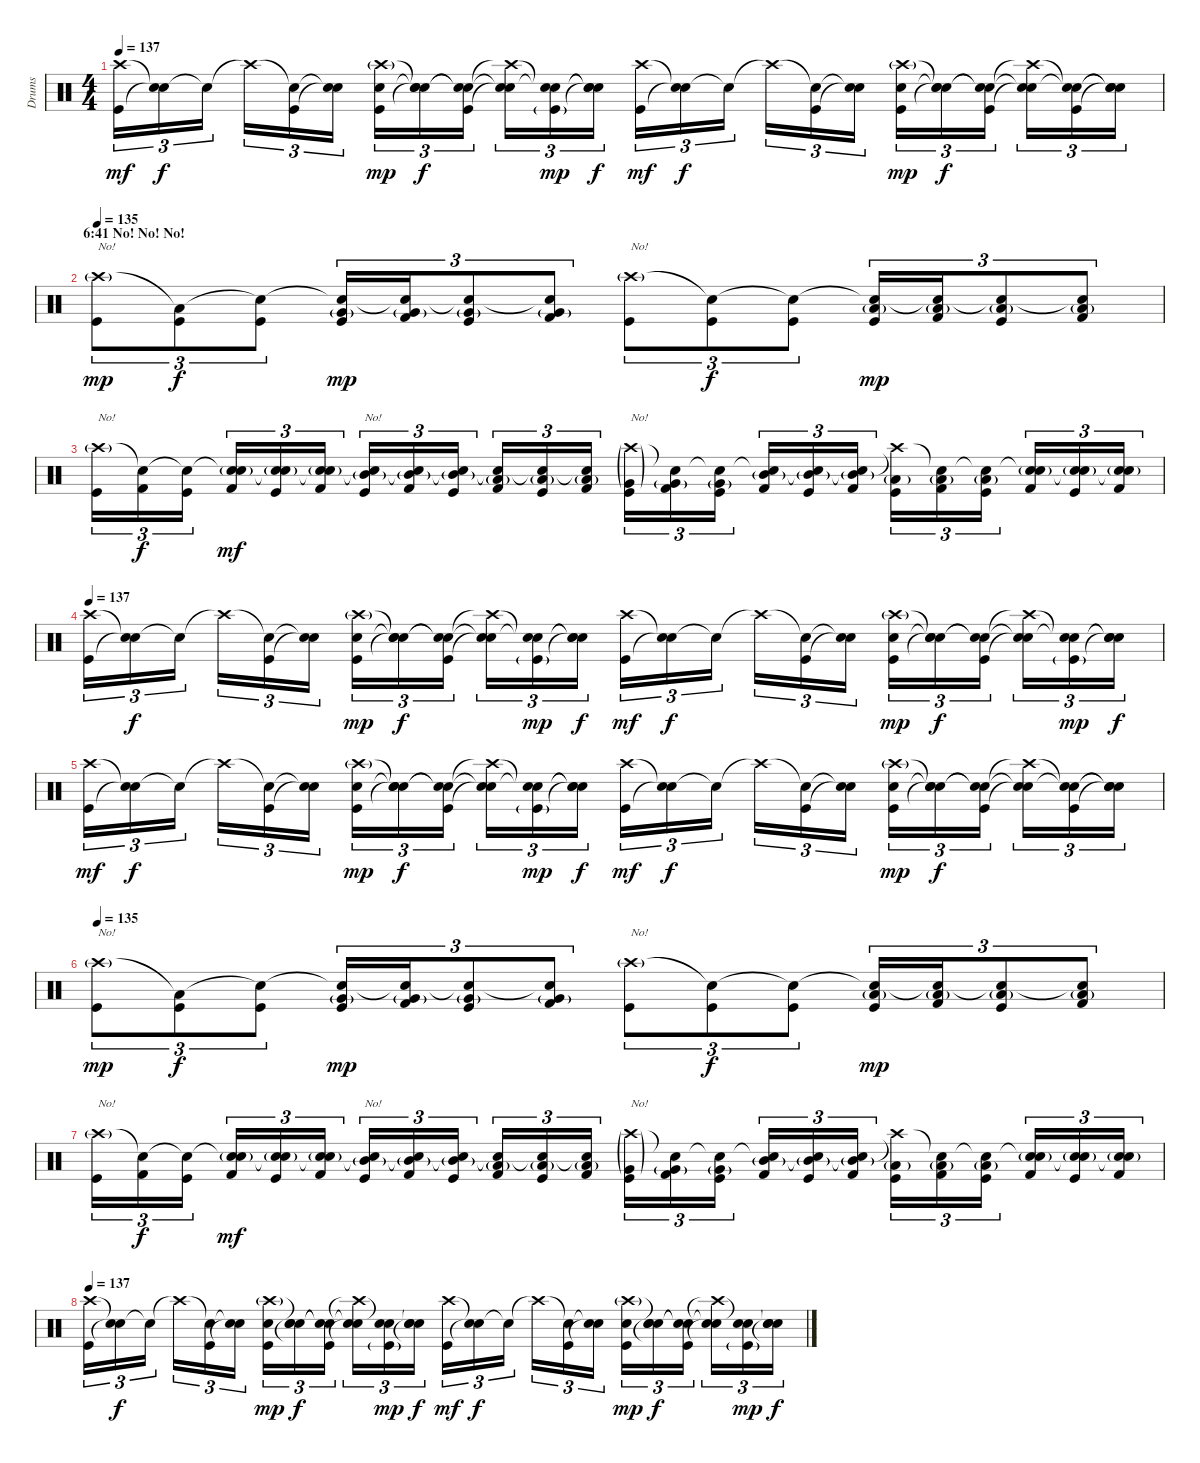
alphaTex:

\track ("Drums" "Drums") {instrument percussion}
\staff {score}
\articulation defaults
\ts (4 4)
\tempo 137
\clef neutral
\ks c
("Crash high (hit)" "Kick (hit)").16{tu (3 2) dy mf} ("Snare (hit)"{t} "Snare (hit)"{t}).16{tu (3 2) dy f} "Snare (hit)"{t}.16{tu (3 2)} "Crash high (hit)"{t}.16{tu (3 2)} ("Snare (hit)"{t} "Kick (hit)").16{tu (3 2)} ("Snare (hit)"{t} "Snare (hit)"{t}).16{tu (3 2)} ("Crash high (hit)"{g} "Snare (hit) 2" "Kick (hit)").16{tu (3 2) dy mp} ("Snare (hit)"{t} "Snare (hit)"{t} "Snare (hit)"{t}).16{tu (3 2) dy f} ("Snare (hit)"{t} "Snare (hit)"{t} "Kick (hit)").16{tu (3 2)} ("Crash high (hit)"{t} "Snare (hit)"{t} "Snare (hit)"{t}).16{tu (3 2)} ("Snare (hit)"{t} "Snare (hit)"{t} "Kick (hit)"{g}).16{tu (3 2) dy mp} ("Snare (hit)"{t} "Snare (hit)"{t} "Snare (hit)"{t}).16{tu (3 2) dy f} ("Crash high (hit)" "Kick (hit)").16{tu (3 2) dy mf} ("Snare (hit)"{t} "Snare (hit)"{t}).16{tu (3 2) dy f} "Snare (hit)"{t}.16{tu (3 2)} "Crash high (hit)"{t}.16{tu (3 2)} ("Snare (hit)"{t} "Kick (hit)").16{tu (3 2)} ("Snare (hit)"{t} "Snare (hit)"{t}).16{tu (3 2)} ("Crash high (hit)"{g} "Snare (hit) 2" "Kick (hit)").16{tu (3 2) dy mp} ("Snare (hit)"{t} "Snare (hit)"{t} "Snare (hit)"{t}).16{tu (3 2) dy f} ("Snare (hit)"{t} "Snare (hit)"{t} "Kick (hit)").16{tu (3 2)} ("Crash high (hit)"{t} "Snare (hit)"{t} "Snare (hit)"{t}).16{tu (3 2)} ("Snare (hit)"{t} "Snare (hit)"{t} "Kick (hit)").16{tu (3 2)} ("Snare (hit)"{t} "Snare (hit)"{t} "Snare (hit)"{t}).16{tu (3 2)} |
\section ("" "6:41 No! No! No!")
\tempo 135
("Crash high (hit)"{g} "Kick (hit)").8{tu (3 2) txt "No!" dy mp volume 16} ("Low Floor Tom (hit)"{t} "Kick (hit)").8{tu (3 2) dy f} ("Snare (hit)"{t} "Kick (hit)").8{tu (3 2)} ("Snare (hit)"{t} "Very Low Tom (hit)"{g} "Kick (hit)").16{tu (3 2) dy mp} ("Snare (hit)"{t} "Very Low Tom (hit)"{g} "Kick (hit) 2").16{tu (3 2)} ("Snare (hit)"{t} "Very Low Tom (hit)"{g} "Kick (hit)").8{tu (3 2)} ("Snare (hit)"{t} "Very Low Tom (hit)"{g} "Kick (hit) 2").8{tu (3 2)} ("Crash high (hit)"{g} "Kick (hit)").8{tu (3 2) txt "No!"} ("Snare (hit)"{t} "Kick (hit)").8{tu (3 2) dy f} ("Snare (hit)"{t} "Kick (hit)").8{tu (3 2)} ("Snare (hit)"{t} "Low Tom (hit)"{g} "Kick (hit)").16{tu (3 2) dy mp} ("Snare (hit)"{t} "Low Tom (hit)"{g} "Kick (hit) 2").16{tu (3 2)} ("Snare (hit)"{t} "Low Tom (hit)"{g} "Kick (hit)").8{tu (3 2)} ("Snare (hit)"{t} "Low Tom (hit)"{g} "Kick (hit) 2").8{tu (3 2)} |
("Crash high (hit)"{g} "Kick (hit)").16{tu (3 2) txt "No!"} ("Snare (hit)"{t} "Kick (hit) 2").16{tu (3 2) dy f} ("Snare (hit)"{t} "Kick (hit)").16{tu (3 2)} ("Snare (hit)"{t} "Snare (hit) 2"{g} "Kick (hit) 2").16{tu (3 2) dy mf} ("Snare (hit)"{t} "Snare (hit) 2"{g} "Kick (hit)").16{tu (3 2)} ("Snare (hit)"{t} "Snare (hit) 2"{g} "Kick (hit) 2").16{tu (3 2)} ("Snare (hit)"{t} "Mid Tom (hit)"{g} "Kick (hit)").16{tu (3 2) txt "No!"} ("Snare (hit)"{t} "Mid Tom (hit)"{g} "Kick (hit) 2").16{tu (3 2)} ("Snare (hit)"{t} "Mid Tom (hit)"{g} "Kick (hit)").16{tu (3 2)} ("Snare (hit)"{t} "Low Tom (hit)"{g} "Kick (hit) 2").16{tu (3 2)} ("Snare (hit)"{t} "Low Tom (hit)"{g} "Kick (hit)").16{tu (3 2)} ("Snare (hit)"{t} "Low Tom (hit)"{g} "Kick (hit) 2").16{tu (3 2)} ("Crash high (hit)"{g} "Very Low Tom (hit)"{g} "Kick (hit)").16{tu (3 2) txt "No!"} ("Snare (hit)"{t} "Very Low Tom (hit)"{g} "Kick (hit) 2").16{tu (3 2)} ("Snare (hit)"{t} "Very Low Tom (hit)"{g} "Kick (hit)").16{tu (3 2)} ("Snare (hit)"{t} "Mid Tom (hit)"{g} "Kick (hit) 2").16{tu (3 2)} ("Snare (hit)"{t} "Mid Tom (hit)"{g} "Kick (hit)").16{tu (3 2)} ("Snare (hit)"{t} "Mid Tom (hit)"{g} "Kick (hit) 2").16{tu (3 2)} ("Crash high (hit)"{t} "Low Tom (hit)"{g} "Kick (hit)").16{tu (3 2)} ("Snare (hit)"{t} "Low Tom (hit)"{g} "Kick (hit) 2").16{tu (3 2)} ("Snare (hit)"{t} "Low Tom (hit)"{g} "Kick (hit)").16{tu (3 2)} ("Snare (hit)"{t} "Snare (hit) 2"{g} "Kick (hit) 2").16{tu (3 2)} ("Snare (hit)"{t} "Snare (hit) 2"{g} "Kick (hit)").16{tu (3 2)} ("Snare (hit)"{t} "Snare (hit) 2"{g} "Kick (hit) 2").16{tu (3 2)} |
\tempo 137
("Crash high (hit)" "Kick (hit)").16{tu (3 2)} ("Snare (hit)"{t} "Snare (hit)"{t}).16{tu (3 2) dy f} "Snare (hit)"{t}.16{tu (3 2)} "Crash high (hit)"{t}.16{tu (3 2)} ("Snare (hit)"{t} "Kick (hit)").16{tu (3 2)} ("Snare (hit)"{t} "Snare (hit)"{t}).16{tu (3 2)} ("Crash high (hit)"{g} "Snare (hit) 2" "Kick (hit)").16{tu (3 2) dy mp} ("Snare (hit)"{t} "Snare (hit)"{t} "Snare (hit)"{t}).16{tu (3 2) dy f} ("Snare (hit)"{t} "Snare (hit)"{t} "Kick (hit)").16{tu (3 2)} ("Crash high (hit)"{t} "Snare (hit)"{t} "Snare (hit)"{t}).16{tu (3 2)} ("Snare (hit)"{t} "Snare (hit)"{t} "Kick (hit)"{g}).16{tu (3 2) dy mp} ("Snare (hit)"{t} "Snare (hit)"{t} "Snare (hit)"{t}).16{tu (3 2) dy f} ("Crash high (hit)" "Kick (hit)").16{tu (3 2) dy mf} ("Snare (hit)"{t} "Snare (hit)"{t}).16{tu (3 2) dy f} "Snare (hit)"{t}.16{tu (3 2)} "Crash high (hit)"{t}.16{tu (3 2)} ("Snare (hit)"{t} "Kick (hit)").16{tu (3 2)} ("Snare (hit)"{t} "Snare (hit)"{t}).16{tu (3 2)} ("Crash high (hit)"{g} "Snare (hit) 2" "Kick (hit)").16{tu (3 2) dy mp} ("Snare (hit)"{t} "Snare (hit)"{t} "Snare (hit)"{t}).16{tu (3 2) dy f} ("Snare (hit)"{t} "Snare (hit)"{t} "Kick (hit)").16{tu (3 2)} ("Crash high (hit)"{t} "Snare (hit)"{t} "Snare (hit)"{t}).16{tu (3 2)} ("Snare (hit)"{t} "Snare (hit)"{t} "Kick (hit)"{g}).16{tu (3 2) dy mp} ("Snare (hit)"{t} "Snare (hit)"{t} "Snare (hit)"{t}).16{tu (3 2) dy f} |
("Crash high (hit)" "Kick (hit)").16{tu (3 2) dy mf} ("Snare (hit)"{t} "Snare (hit)"{t}).16{tu (3 2) dy f} "Snare (hit)"{t}.16{tu (3 2)} "Crash high (hit)"{t}.16{tu (3 2)} ("Snare (hit)"{t} "Kick (hit)").16{tu (3 2)} ("Snare (hit)"{t} "Snare (hit)"{t}).16{tu (3 2)} ("Crash high (hit)"{g} "Snare (hit) 2" "Kick (hit)").16{tu (3 2) dy mp} ("Snare (hit)"{t} "Snare (hit)"{t} "Snare (hit)"{t}).16{tu (3 2) dy f} ("Snare (hit)"{t} "Snare (hit)"{t} "Kick (hit)").16{tu (3 2)} ("Crash high (hit)"{t} "Snare (hit)"{t} "Snare (hit)"{t}).16{tu (3 2)} ("Snare (hit)"{t} "Snare (hit)"{t} "Kick (hit)"{g}).16{tu (3 2) dy mp} ("Snare (hit)"{t} "Snare (hit)"{t} "Snare (hit)"{t}).16{tu (3 2) dy f} ("Crash high (hit)" "Kick (hit)").16{tu (3 2) dy mf} ("Snare (hit)"{t} "Snare (hit)"{t}).16{tu (3 2) dy f} "Snare (hit)"{t}.16{tu (3 2)} "Crash high (hit)"{t}.16{tu (3 2)} ("Snare (hit)"{t} "Kick (hit)").16{tu (3 2)} ("Snare (hit)"{t} "Snare (hit)"{t}).16{tu (3 2)} ("Crash high (hit)"{g} "Snare (hit) 2" "Kick (hit)").16{tu (3 2) dy mp} ("Snare (hit)"{t} "Snare (hit)"{t} "Snare (hit)"{t}).16{tu (3 2) dy f} ("Snare (hit)"{t} "Snare (hit)"{t} "Kick (hit)").16{tu (3 2)} ("Crash high (hit)"{t} "Snare (hit)"{t} "Snare (hit)"{t}).16{tu (3 2)} ("Snare (hit)"{t} "Snare (hit)"{t} "Kick (hit)").16{tu (3 2)} ("Snare (hit)"{t} "Snare (hit)"{t} "Snare (hit)"{t}).16{tu (3 2)} |
\tempo 135
("Crash high (hit)"{g} "Kick (hit)").8{tu (3 2) txt "No!" dy mp volume 16} ("Low Floor Tom (hit)"{t} "Kick (hit)").8{tu (3 2) dy f} ("Snare (hit)"{t} "Kick (hit)").8{tu (3 2)} ("Snare (hit)"{t} "Very Low Tom (hit)"{g} "Kick (hit)").16{tu (3 2) dy mp} ("Snare (hit)"{t} "Very Low Tom (hit)"{g} "Kick (hit) 2").16{tu (3 2)} ("Snare (hit)"{t} "Very Low Tom (hit)"{g} "Kick (hit)").8{tu (3 2)} ("Snare (hit)"{t} "Very Low Tom (hit)"{g} "Kick (hit) 2").8{tu (3 2)} ("Crash high (hit)"{g} "Kick (hit)").8{tu (3 2) txt "No!"} ("Snare (hit)"{t} "Kick (hit)").8{tu (3 2) dy f} ("Snare (hit)"{t} "Kick (hit)").8{tu (3 2)} ("Snare (hit)"{t} "Low Tom (hit)"{g} "Kick (hit)").16{tu (3 2) dy mp} ("Snare (hit)"{t} "Low Tom (hit)"{g} "Kick (hit) 2").16{tu (3 2)} ("Snare (hit)"{t} "Low Tom (hit)"{g} "Kick (hit)").8{tu (3 2)} ("Snare (hit)"{t} "Low Tom (hit)"{g} "Kick (hit) 2").8{tu (3 2)} |
("Crash high (hit)"{g} "Kick (hit)").16{tu (3 2) txt "No!"} ("Snare (hit)"{t} "Kick (hit) 2").16{tu (3 2) dy f} ("Snare (hit)"{t} "Kick (hit)").16{tu (3 2)} ("Snare (hit)"{t} "Snare (hit) 2"{g} "Kick (hit) 2").16{tu (3 2) dy mf} ("Snare (hit)"{t} "Snare (hit) 2"{g} "Kick (hit)").16{tu (3 2)} ("Snare (hit)"{t} "Snare (hit) 2"{g} "Kick (hit) 2").16{tu (3 2)} ("Snare (hit)"{t} "Mid Tom (hit)"{g} "Kick (hit)").16{tu (3 2) txt "No!"} ("Snare (hit)"{t} "Mid Tom (hit)"{g} "Kick (hit) 2").16{tu (3 2)} ("Snare (hit)"{t} "Mid Tom (hit)"{g} "Kick (hit)").16{tu (3 2)} ("Snare (hit)"{t} "Low Tom (hit)"{g} "Kick (hit) 2").16{tu (3 2)} ("Snare (hit)"{t} "Low Tom (hit)"{g} "Kick (hit)").16{tu (3 2)} ("Snare (hit)"{t} "Low Tom (hit)"{g} "Kick (hit) 2").16{tu (3 2)} ("Crash high (hit)"{g} "Very Low Tom (hit)"{g} "Kick (hit)").16{tu (3 2) txt "No!"} ("Snare (hit)"{t} "Very Low Tom (hit)"{g} "Kick (hit) 2").16{tu (3 2)} ("Snare (hit)"{t} "Very Low Tom (hit)"{g} "Kick (hit)").16{tu (3 2)} ("Snare (hit)"{t} "Mid Tom (hit)"{g} "Kick (hit) 2").16{tu (3 2)} ("Snare (hit)"{t} "Mid Tom (hit)"{g} "Kick (hit)").16{tu (3 2)} ("Snare (hit)"{t} "Mid Tom (hit)"{g} "Kick (hit) 2").16{tu (3 2)} ("Crash high (hit)"{t} "Low Tom (hit)"{g} "Kick (hit)").16{tu (3 2)} ("Snare (hit)"{t} "Low Tom (hit)"{g} "Kick (hit) 2").16{tu (3 2)} ("Snare (hit)"{t} "Low Tom (hit)"{g} "Kick (hit)").16{tu (3 2)} ("Snare (hit)"{t} "Snare (hit) 2"{g} "Kick (hit) 2").16{tu (3 2)} ("Snare (hit)"{t} "Snare (hit) 2"{g} "Kick (hit)").16{tu (3 2)} ("Snare (hit)"{t} "Snare (hit) 2"{g} "Kick (hit) 2").16{tu (3 2)} |
\tempo 137
("Crash high (hit)" "Kick (hit)").16{tu (3 2)} ("Snare (hit)"{t} "Snare (hit)"{t}).16{tu (3 2) dy f} "Snare (hit)"{t}.16{tu (3 2)} "Crash high (hit)"{t}.16{tu (3 2)} ("Snare (hit)"{t} "Kick (hit)").16{tu (3 2)} ("Snare (hit)"{t} "Snare (hit)"{t}).16{tu (3 2)} ("Crash high (hit)"{g} "Snare (hit) 2" "Kick (hit)").16{tu (3 2) dy mp} ("Snare (hit)"{t} "Snare (hit)"{t} "Snare (hit)"{t}).16{tu (3 2) dy f} ("Snare (hit)"{t} "Snare (hit)"{t} "Kick (hit)").16{tu (3 2)} ("Crash high (hit)"{t} "Snare (hit)"{t} "Snare (hit)"{t}).16{tu (3 2)} ("Snare (hit)"{t} "Snare (hit)"{t} "Kick (hit)"{g}).16{tu (3 2) dy mp} ("Snare (hit)"{t} "Snare (hit)"{t} "Snare (hit)"{t}).16{tu (3 2) dy f} ("Crash high (hit)" "Kick (hit)").16{tu (3 2) dy mf} ("Snare (hit)"{t} "Snare (hit)"{t}).16{tu (3 2) dy f} "Snare (hit)"{t}.16{tu (3 2)} "Crash high (hit)"{t}.16{tu (3 2)} ("Snare (hit)"{t} "Kick (hit)").16{tu (3 2)} ("Snare (hit)"{t} "Snare (hit)"{t}).16{tu (3 2)} ("Crash high (hit)"{g} "Snare (hit) 2" "Kick (hit)").16{tu (3 2) dy mp} ("Snare (hit)"{t} "Snare (hit)"{t} "Snare (hit)"{t}).16{tu (3 2) dy f} ("Snare (hit)"{t} "Snare (hit)"{t} "Kick (hit)").16{tu (3 2)} ("Crash high (hit)"{t} "Snare (hit)"{t} "Snare (hit)"{t}).16{tu (3 2)} ("Snare (hit)"{t} "Snare (hit)"{t} "Kick (hit)"{g}).16{tu (3 2) dy mp} ("Snare (hit)"{t} "Snare (hit)"{t} "Snare (hit)"{t}).16{tu (3 2) dy f}
